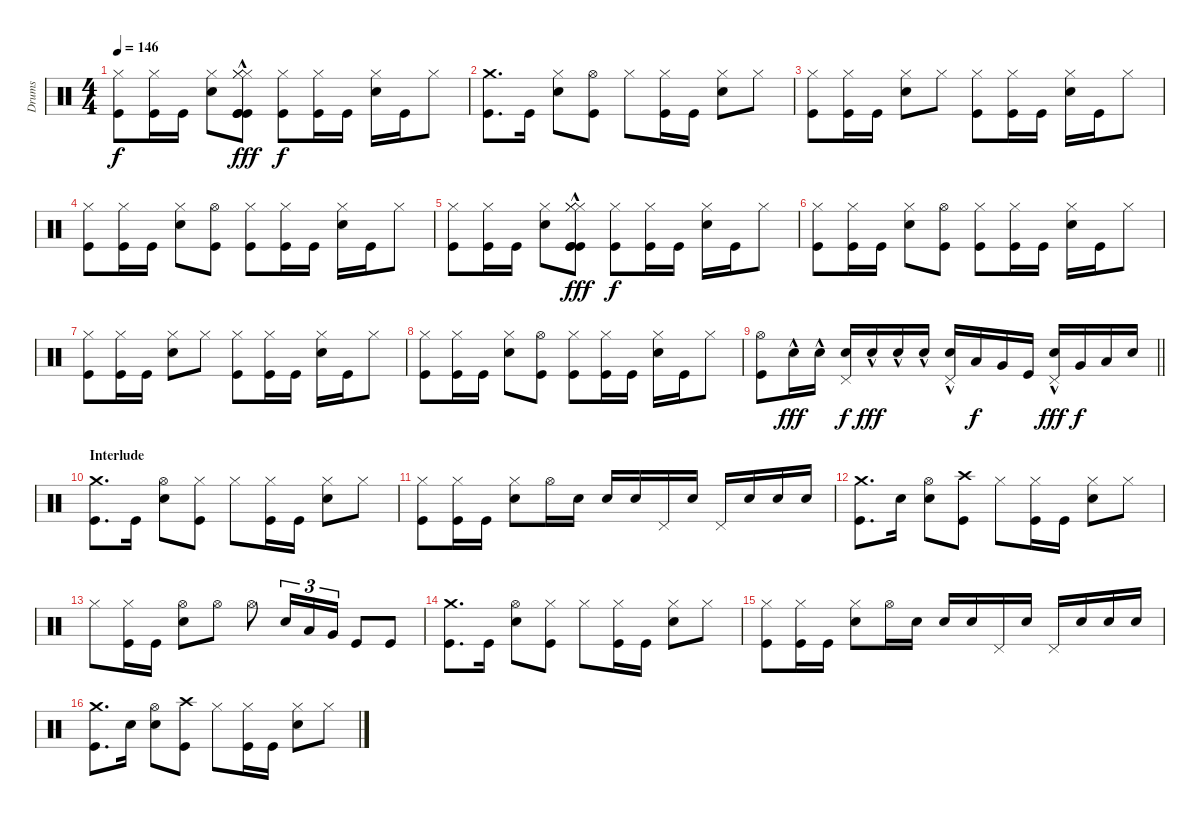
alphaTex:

\track ("Drums" "Drums") {instrument percussion}
\staff {score}
\articulation defaults
\ts (4 4)
\tempo 146
\clef neutral
\ks c
("Hi-Hat (closed)" "Kick (hit)").8{dy f} ("Hi-Hat (closed)" "Kick (hit)").16 "Kick (hit)".16 ("Hi-Hat (closed)" "Electric Snare (hit)").8 ("Hi-Hat (closed)"{hac} "Hi-Hat (closed)"{hac} "Hi-Hat (closed)"{hac} "Kick (hit)"{hac} "Kick (hit)"{hac} "Kick (hit)"{hac}).8{dy fff} ("Hi-Hat (closed)" "Kick (hit)").8{dy f} ("Hi-Hat (closed)" "Kick (hit)").16 "Kick (hit)".16 ("Hi-Hat (closed)" "Electric Snare (hit)").16 "Kick (hit)".16 "Hi-Hat (closed)".8 |
("Crash medium (hit)" "Kick (hit)").8{d} "Kick (hit)".16 ("Hi-Hat (closed)" "Electric Snare (hit)").8 ("Hi-Hat (open)" "Kick (hit)").8 "Hi-Hat (closed)".8 ("Hi-Hat (closed)" "Kick (hit)").16 "Kick (hit)".16 ("Hi-Hat (closed)" "Electric Snare (hit)").8 "Hi-Hat (closed)".8 |
("Hi-Hat (closed)" "Kick (hit)").8 ("Hi-Hat (closed)" "Kick (hit)").16 "Kick (hit)".16 ("Hi-Hat (closed)" "Electric Snare (hit)").8 "Hi-Hat (closed)".8 ("Hi-Hat (closed)" "Kick (hit)").8 ("Hi-Hat (closed)" "Kick (hit)").16 "Kick (hit)".16 ("Hi-Hat (closed)" "Electric Snare (hit)").16 "Kick (hit)".16 "Hi-Hat (closed)".8 |
("Hi-Hat (closed)" "Kick (hit)").8 ("Hi-Hat (closed)" "Kick (hit)").16 "Kick (hit)".16 ("Hi-Hat (closed)" "Electric Snare (hit)").8 ("Hi-Hat (open)" "Kick (hit)").8 ("Hi-Hat (closed)" "Kick (hit)").8 ("Hi-Hat (closed)" "Kick (hit)").16 "Kick (hit)".16 ("Hi-Hat (closed)" "Electric Snare (hit)").16 "Kick (hit)".16 "Hi-Hat (closed)".8 |
("Hi-Hat (closed)" "Kick (hit)").8 ("Hi-Hat (closed)" "Kick (hit)").16 "Kick (hit)".16 ("Hi-Hat (closed)" "Electric Snare (hit)").8 ("Hi-Hat (closed)"{hac} "Hi-Hat (closed)"{hac} "Hi-Hat (closed)"{hac} "Kick (hit)"{hac} "Kick (hit)"{hac} "Kick (hit)"{hac}).8{dy fff} ("Hi-Hat (closed)" "Kick (hit)").8{dy f} ("Hi-Hat (closed)" "Kick (hit)").16 "Kick (hit)".16 ("Hi-Hat (closed)" "Electric Snare (hit)").16 "Kick (hit)".16 "Hi-Hat (closed)".8 |
("Hi-Hat (closed)" "Kick (hit)").8 ("Hi-Hat (closed)" "Kick (hit)").16 "Kick (hit)".16 ("Hi-Hat (closed)" "Electric Snare (hit)").8 ("Hi-Hat (open)" "Kick (hit)").8 ("Hi-Hat (closed)" "Kick (hit)").8 ("Hi-Hat (closed)" "Kick (hit)").16 "Kick (hit)".16 ("Hi-Hat (closed)" "Electric Snare (hit)").16 "Kick (hit)".16 "Hi-Hat (closed)".8 |
("Hi-Hat (closed)" "Kick (hit)").8 ("Hi-Hat (closed)" "Kick (hit)").16 "Kick (hit)".16 ("Hi-Hat (closed)" "Electric Snare (hit)").8 "Hi-Hat (closed)".8 ("Hi-Hat (closed)" "Kick (hit)").8 ("Hi-Hat (closed)" "Kick (hit)").16 "Kick (hit)".16 ("Hi-Hat (closed)" "Electric Snare (hit)").16 "Kick (hit)".16 "Hi-Hat (closed)".8 |
("Hi-Hat (closed)" "Kick (hit)").8 ("Hi-Hat (closed)" "Kick (hit)").16 "Kick (hit)".16 ("Hi-Hat (closed)" "Electric Snare (hit)").8 ("Hi-Hat (open)" "Kick (hit)").8 ("Hi-Hat (closed)" "Kick (hit)").8 ("Hi-Hat (closed)" "Kick (hit)").16 "Kick (hit)".16 ("Hi-Hat (closed)" "Electric Snare (hit)").16 "Kick (hit)".16 "Hi-Hat (closed)".8 |
\barLineRight lightlight
("Hi-Hat (open)" "Kick (hit)").8 "Electric Snare (hit)"{hac}.16{dy fff} "Electric Snare (hit)"{hac}.16 ("Pedal Hi-Hat (hit)" "Electric Snare (hit)").16{dy f} "Electric Snare (hit)"{hac}.16{dy fff} "Electric Snare (hit)"{hac}.16 "Electric Snare (hit)"{hac}.16 ("Pedal Hi-Hat (hit)" "Electric Snare (hit)"{hac}).16 "Low Tom (hit)".16{dy f} "Very Low Tom (hit)".16 "Kick (hit)".16 ("Pedal Hi-Hat (hit)" "Electric Snare (hit)"{hac}).16{dy fff} "Very Low Tom (hit)".16{dy f} "Low Floor Tom (hit)".16 "Electric Snare (hit)".16 |
\section ("" "Interlude")
("Crash medium (hit)" "Kick (hit)").8{d} "Kick (hit)".16 ("Hi-Hat (open)" "Electric Snare (hit)").8 ("Hi-Hat (closed)" "Kick (hit)").8 "Hi-Hat (closed)".8 ("Hi-Hat (closed)" "Kick (hit)").16 "Kick (hit)".16 ("Hi-Hat (closed)" "Electric Snare (hit)").8 "Hi-Hat (closed)".8 |
("Hi-Hat (closed)" "Kick (hit)").8 ("Hi-Hat (closed)" "Kick (hit)").16 "Kick (hit)".16 ("Hi-Hat (closed)" "Electric Snare (hit)").8 "Hi-Hat (open)".16 "Electric Snare (hit)".16 "Electric Snare (hit)".16 "Electric Snare (hit)".16 "Pedal Hi-Hat (hit)".16 "Electric Snare (hit)".16 "Pedal Hi-Hat (hit)".16 "Electric Snare (hit)".16 "Electric Snare (hit)".16 "Electric Snare (hit)".16 |
("Crash medium (hit)" "Kick (hit)").8{d} "Electric Snare (hit)".16 ("Hi-Hat (open)" "Electric Snare (hit)").8 ("Crash high (hit)" "Kick (hit)").8 "Hi-Hat (closed)".8 ("Hi-Hat (closed)" "Kick (hit)").16 "Kick (hit)".16 ("Hi-Hat (closed)" "Electric Snare (hit)").8 "Hi-Hat (closed)".8 |
"Hi-Hat (closed)".8 ("Hi-Hat (closed)" "Kick (hit)").16 "Kick (hit)".16 ("Hi-Hat (open)" "Electric Snare (hit)").8 "Hi-Hat (open)".8 "Hi-Hat (open)".8 "Electric Snare (hit)".16{tu (3 2)} "Low Tom (hit)".16{tu (3 2)} "Very Low Tom (hit)".16{tu (3 2)} "Kick (hit)".8 "Kick (hit)".8 |
("Crash medium (hit)" "Kick (hit)").8{d} "Kick (hit)".16 ("Hi-Hat (open)" "Electric Snare (hit)").8 ("Hi-Hat (closed)" "Kick (hit)").8 "Hi-Hat (closed)".8 ("Hi-Hat (closed)" "Kick (hit)").16 "Kick (hit)".16 ("Hi-Hat (closed)" "Electric Snare (hit)").8 "Hi-Hat (closed)".8 |
("Hi-Hat (closed)" "Kick (hit)").8 ("Hi-Hat (closed)" "Kick (hit)").16 "Kick (hit)".16 ("Hi-Hat (closed)" "Electric Snare (hit)").8 "Hi-Hat (open)".16 "Electric Snare (hit)".16 "Electric Snare (hit)".16 "Electric Snare (hit)".16 "Pedal Hi-Hat (hit)".16 "Electric Snare (hit)".16 "Pedal Hi-Hat (hit)".16 "Electric Snare (hit)".16 "Electric Snare (hit)".16 "Electric Snare (hit)".16 |
("Crash medium (hit)" "Kick (hit)").8{d} "Electric Snare (hit)".16 ("Hi-Hat (open)" "Electric Snare (hit)").8 ("Crash high (hit)" "Kick (hit)").8 "Hi-Hat (closed)".8 ("Hi-Hat (closed)" "Kick (hit)").16 "Kick (hit)".16 ("Hi-Hat (closed)" "Electric Snare (hit)").8 "Hi-Hat (closed)".8
